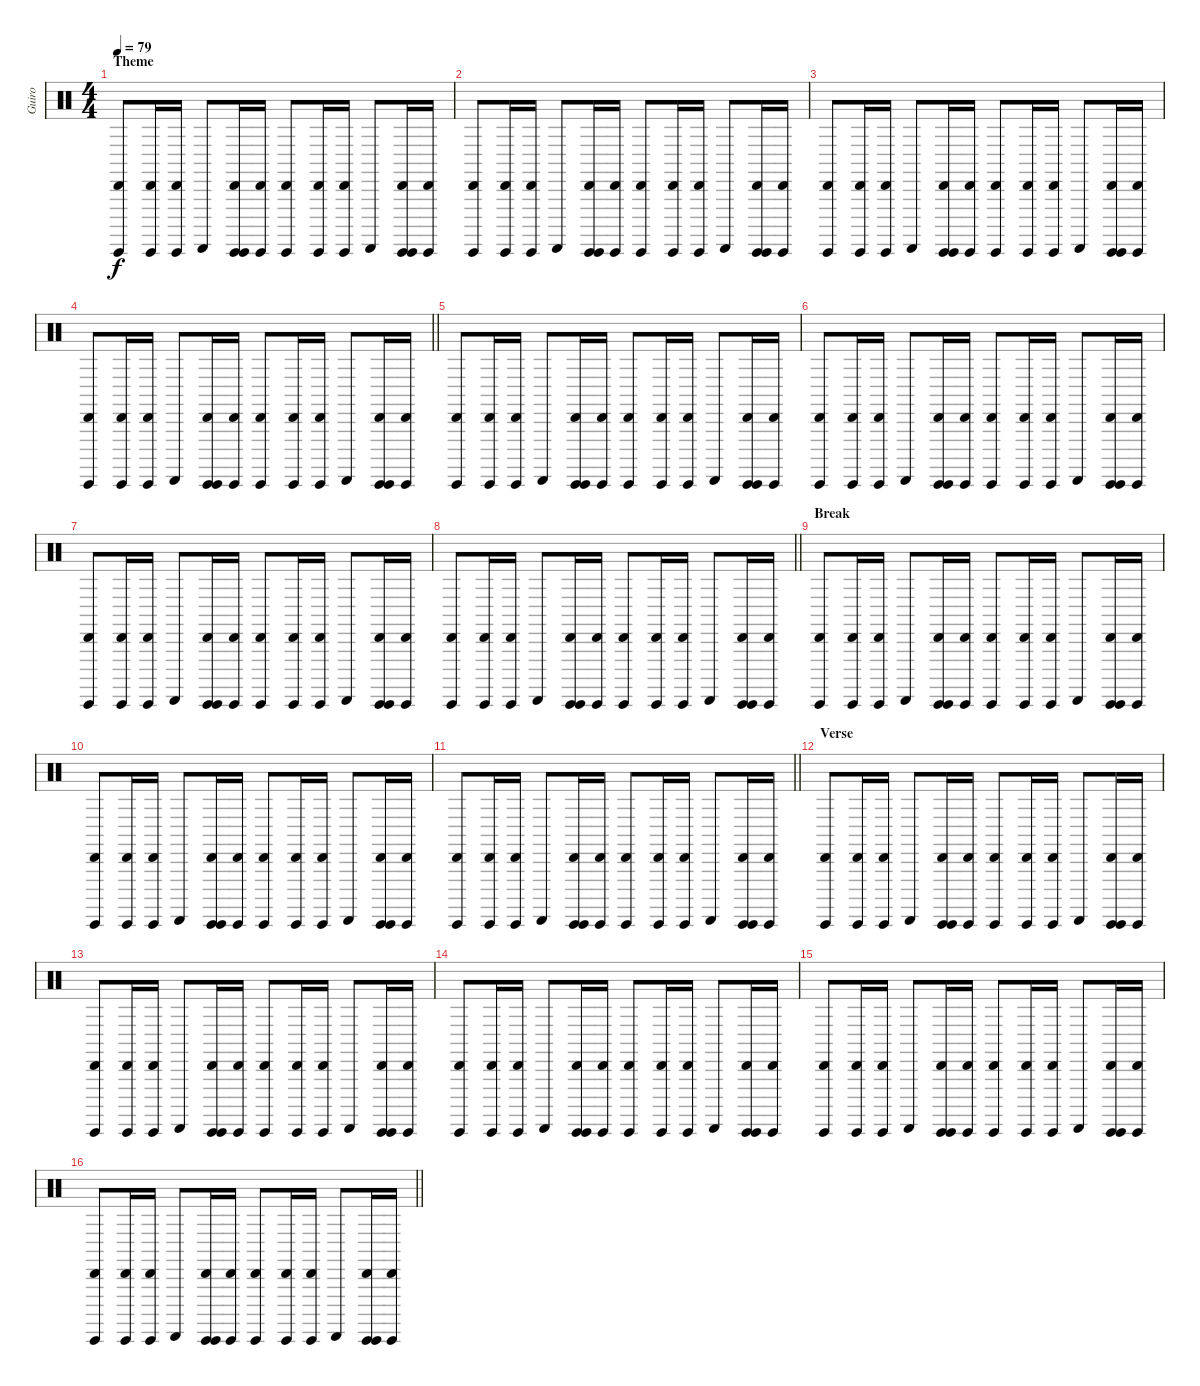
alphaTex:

\track ("Guiro" "Guiro") {instrument percussion}
\staff {score}
\articulation defaults
\ts (4 4)
\section ("" "Theme")
\tempo 79
\clef neutral
\ks c
("Guiro (hit)" "Cabasa (hit)").8{dy f} ("Guiro (hit)" "Cabasa (hit)").16 ("Guiro (hit)" "Cabasa (hit)").16 "Guiro (scrap-return)".8 ("Guiro (hit)" "Guiro (hit)" "Cabasa (hit)").16 ("Guiro (hit)" "Cabasa (hit)").16 ("Guiro (hit)" "Cabasa (hit)").8 ("Guiro (hit)" "Cabasa (hit)").16 ("Guiro (hit)" "Cabasa (hit)").16 "Guiro (scrap-return)".8 ("Guiro (hit)" "Guiro (hit)" "Cabasa (hit)").16 ("Guiro (hit)" "Cabasa (hit)").16 |
("Guiro (hit)" "Cabasa (hit)").8 ("Guiro (hit)" "Cabasa (hit)").16 ("Guiro (hit)" "Cabasa (hit)").16 "Guiro (scrap-return)".8 ("Guiro (hit)" "Guiro (hit)" "Cabasa (hit)").16 ("Guiro (hit)" "Cabasa (hit)").16 ("Guiro (hit)" "Cabasa (hit)").8 ("Guiro (hit)" "Cabasa (hit)").16 ("Guiro (hit)" "Cabasa (hit)").16 "Guiro (scrap-return)".8 ("Guiro (hit)" "Guiro (hit)" "Cabasa (hit)").16 ("Guiro (hit)" "Cabasa (hit)").16 |
("Guiro (hit)" "Cabasa (hit)").8 ("Guiro (hit)" "Cabasa (hit)").16 ("Guiro (hit)" "Cabasa (hit)").16 "Guiro (scrap-return)".8 ("Guiro (hit)" "Guiro (hit)" "Cabasa (hit)").16 ("Guiro (hit)" "Cabasa (hit)").16 ("Guiro (hit)" "Cabasa (hit)").8 ("Guiro (hit)" "Cabasa (hit)").16 ("Guiro (hit)" "Cabasa (hit)").16 "Guiro (scrap-return)".8 ("Guiro (hit)" "Guiro (hit)" "Cabasa (hit)").16 ("Guiro (hit)" "Cabasa (hit)").16 |
\barLineRight lightlight
("Guiro (hit)" "Cabasa (hit)").8 ("Guiro (hit)" "Cabasa (hit)").16 ("Guiro (hit)" "Cabasa (hit)").16 "Guiro (scrap-return)".8 ("Guiro (hit)" "Guiro (hit)" "Cabasa (hit)").16 ("Guiro (hit)" "Cabasa (hit)").16 ("Guiro (hit)" "Cabasa (hit)").8 ("Guiro (hit)" "Cabasa (hit)").16 ("Guiro (hit)" "Cabasa (hit)").16 "Guiro (scrap-return)".8 ("Guiro (hit)" "Guiro (hit)" "Cabasa (hit)").16 ("Guiro (hit)" "Cabasa (hit)").16 |
("Guiro (hit)" "Cabasa (hit)").8 ("Guiro (hit)" "Cabasa (hit)").16 ("Guiro (hit)" "Cabasa (hit)").16 "Guiro (scrap-return)".8 ("Guiro (hit)" "Guiro (hit)" "Cabasa (hit)").16 ("Guiro (hit)" "Cabasa (hit)").16 ("Guiro (hit)" "Cabasa (hit)").8 ("Guiro (hit)" "Cabasa (hit)").16 ("Guiro (hit)" "Cabasa (hit)").16 "Guiro (scrap-return)".8 ("Guiro (hit)" "Guiro (hit)" "Cabasa (hit)").16 ("Guiro (hit)" "Cabasa (hit)").16 |
("Guiro (hit)" "Cabasa (hit)").8 ("Guiro (hit)" "Cabasa (hit)").16 ("Guiro (hit)" "Cabasa (hit)").16 "Guiro (scrap-return)".8 ("Guiro (hit)" "Guiro (hit)" "Cabasa (hit)").16 ("Guiro (hit)" "Cabasa (hit)").16 ("Guiro (hit)" "Cabasa (hit)").8 ("Guiro (hit)" "Cabasa (hit)").16 ("Guiro (hit)" "Cabasa (hit)").16 "Guiro (scrap-return)".8 ("Guiro (hit)" "Guiro (hit)" "Cabasa (hit)").16 ("Guiro (hit)" "Cabasa (hit)").16 |
("Guiro (hit)" "Cabasa (hit)").8 ("Guiro (hit)" "Cabasa (hit)").16 ("Guiro (hit)" "Cabasa (hit)").16 "Guiro (scrap-return)".8 ("Guiro (hit)" "Guiro (hit)" "Cabasa (hit)").16 ("Guiro (hit)" "Cabasa (hit)").16 ("Guiro (hit)" "Cabasa (hit)").8 ("Guiro (hit)" "Cabasa (hit)").16 ("Guiro (hit)" "Cabasa (hit)").16 "Guiro (scrap-return)".8 ("Guiro (hit)" "Guiro (hit)" "Cabasa (hit)").16 ("Guiro (hit)" "Cabasa (hit)").16 |
\barLineRight lightlight
("Guiro (hit)" "Cabasa (hit)").8 ("Guiro (hit)" "Cabasa (hit)").16 ("Guiro (hit)" "Cabasa (hit)").16 "Guiro (scrap-return)".8 ("Guiro (hit)" "Guiro (hit)" "Cabasa (hit)").16 ("Guiro (hit)" "Cabasa (hit)").16 ("Guiro (hit)" "Cabasa (hit)").8 ("Guiro (hit)" "Cabasa (hit)").16 ("Guiro (hit)" "Cabasa (hit)").16 "Guiro (scrap-return)".8 ("Guiro (hit)" "Guiro (hit)" "Cabasa (hit)").16 ("Guiro (hit)" "Cabasa (hit)").16 |
\section ("" "Break")
("Guiro (hit)" "Cabasa (hit)").8 ("Guiro (hit)" "Cabasa (hit)").16 ("Guiro (hit)" "Cabasa (hit)").16 "Guiro (scrap-return)".8 ("Guiro (hit)" "Guiro (hit)" "Cabasa (hit)").16 ("Guiro (hit)" "Cabasa (hit)").16 ("Guiro (hit)" "Cabasa (hit)").8 ("Guiro (hit)" "Cabasa (hit)").16 ("Guiro (hit)" "Cabasa (hit)").16 "Guiro (scrap-return)".8 ("Guiro (hit)" "Guiro (hit)" "Cabasa (hit)").16 ("Guiro (hit)" "Cabasa (hit)").16 |
("Guiro (hit)" "Cabasa (hit)").8 ("Guiro (hit)" "Cabasa (hit)").16 ("Guiro (hit)" "Cabasa (hit)").16 "Guiro (scrap-return)".8 ("Guiro (hit)" "Guiro (hit)" "Cabasa (hit)").16 ("Guiro (hit)" "Cabasa (hit)").16 ("Guiro (hit)" "Cabasa (hit)").8 ("Guiro (hit)" "Cabasa (hit)").16 ("Guiro (hit)" "Cabasa (hit)").16 "Guiro (scrap-return)".8 ("Guiro (hit)" "Guiro (hit)" "Cabasa (hit)").16 ("Guiro (hit)" "Cabasa (hit)").16 |
\barLineRight lightlight
("Guiro (hit)" "Cabasa (hit)").8 ("Guiro (hit)" "Cabasa (hit)").16 ("Guiro (hit)" "Cabasa (hit)").16 "Guiro (scrap-return)".8 ("Guiro (hit)" "Guiro (hit)" "Cabasa (hit)").16 ("Guiro (hit)" "Cabasa (hit)").16 ("Guiro (hit)" "Cabasa (hit)").8 ("Guiro (hit)" "Cabasa (hit)").16 ("Guiro (hit)" "Cabasa (hit)").16 "Guiro (scrap-return)".8 ("Guiro (hit)" "Guiro (hit)" "Cabasa (hit)").16 ("Guiro (hit)" "Cabasa (hit)").16 |
\section ("" "Verse")
("Guiro (hit)" "Cabasa (hit)").8 ("Guiro (hit)" "Cabasa (hit)").16 ("Guiro (hit)" "Cabasa (hit)").16 "Guiro (scrap-return)".8 ("Guiro (hit)" "Guiro (hit)" "Cabasa (hit)").16 ("Guiro (hit)" "Cabasa (hit)").16 ("Guiro (hit)" "Cabasa (hit)").8 ("Guiro (hit)" "Cabasa (hit)").16 ("Guiro (hit)" "Cabasa (hit)").16 "Guiro (scrap-return)".8 ("Guiro (hit)" "Guiro (hit)" "Cabasa (hit)").16 ("Guiro (hit)" "Cabasa (hit)").16 |
("Guiro (hit)" "Cabasa (hit)").8 ("Guiro (hit)" "Cabasa (hit)").16 ("Guiro (hit)" "Cabasa (hit)").16 "Guiro (scrap-return)".8 ("Guiro (hit)" "Guiro (hit)" "Cabasa (hit)").16 ("Guiro (hit)" "Cabasa (hit)").16 ("Guiro (hit)" "Cabasa (hit)").8 ("Guiro (hit)" "Cabasa (hit)").16 ("Guiro (hit)" "Cabasa (hit)").16 "Guiro (scrap-return)".8 ("Guiro (hit)" "Guiro (hit)" "Cabasa (hit)").16 ("Guiro (hit)" "Cabasa (hit)").16 |
("Guiro (hit)" "Cabasa (hit)").8 ("Guiro (hit)" "Cabasa (hit)").16 ("Guiro (hit)" "Cabasa (hit)").16 "Guiro (scrap-return)".8 ("Guiro (hit)" "Guiro (hit)" "Cabasa (hit)").16 ("Guiro (hit)" "Cabasa (hit)").16 ("Guiro (hit)" "Cabasa (hit)").8 ("Guiro (hit)" "Cabasa (hit)").16 ("Guiro (hit)" "Cabasa (hit)").16 "Guiro (scrap-return)".8 ("Guiro (hit)" "Guiro (hit)" "Cabasa (hit)").16 ("Guiro (hit)" "Cabasa (hit)").16 |
("Guiro (hit)" "Cabasa (hit)").8 ("Guiro (hit)" "Cabasa (hit)").16 ("Guiro (hit)" "Cabasa (hit)").16 "Guiro (scrap-return)".8 ("Guiro (hit)" "Guiro (hit)" "Cabasa (hit)").16 ("Guiro (hit)" "Cabasa (hit)").16 ("Guiro (hit)" "Cabasa (hit)").8 ("Guiro (hit)" "Cabasa (hit)").16 ("Guiro (hit)" "Cabasa (hit)").16 "Guiro (scrap-return)".8 ("Guiro (hit)" "Guiro (hit)" "Cabasa (hit)").16 ("Guiro (hit)" "Cabasa (hit)").16 |
\barLineRight lightlight
("Guiro (hit)" "Cabasa (hit)").8 ("Guiro (hit)" "Cabasa (hit)").16 ("Guiro (hit)" "Cabasa (hit)").16 "Guiro (scrap-return)".8 ("Guiro (hit)" "Guiro (hit)" "Cabasa (hit)").16 ("Guiro (hit)" "Cabasa (hit)").16 ("Guiro (hit)" "Cabasa (hit)").8 ("Guiro (hit)" "Cabasa (hit)").16 ("Guiro (hit)" "Cabasa (hit)").16 "Guiro (scrap-return)".8 ("Guiro (hit)" "Guiro (hit)" "Cabasa (hit)").16 ("Guiro (hit)" "Cabasa (hit)").16
